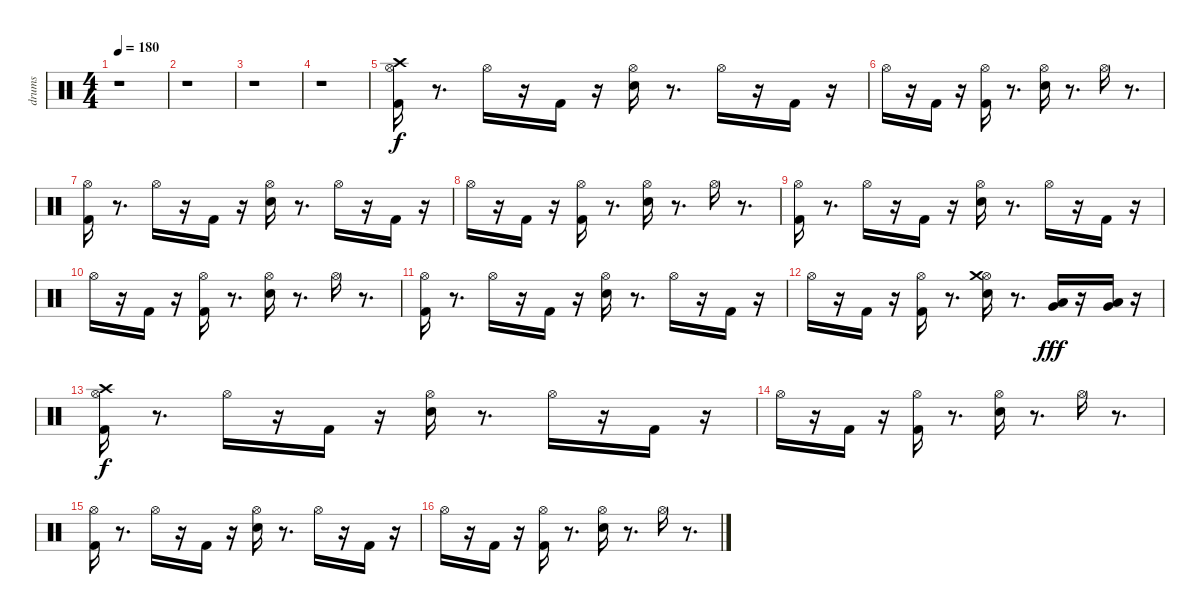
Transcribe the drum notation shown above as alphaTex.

\track ("drums" "drums") {instrument percussion}
\staff {score}
\articulation defaults
\ts (4 4)
\tempo 180
\clef neutral
\ks c
r.1{dy f} |
r.1 |
r.1 |
r.1 |
("Kick (hit) 2" "Hi-Hat (open)" "Crash high (hit)").16 r.8{d} "Hi-Hat (open)".16 r.16 "Kick (hit) 2".16 r.16 ("Electric Snare (hit)" "Hi-Hat (open)").16 r.8{d} "Hi-Hat (open)".16 r.16 "Kick (hit) 2".16 r.16 |
"Hi-Hat (open)".16 r.16 "Kick (hit) 2".16 r.16 ("Hi-Hat (open)" "Kick (hit) 2").16 r.8{d} ("Hi-Hat (open)" "Electric Snare (hit)").16 r.8{d} "Hi-Hat (open)".16 r.8{d} |
("Kick (hit) 2" "Hi-Hat (open)").16 r.8{d} "Hi-Hat (open)".16 r.16 "Kick (hit) 2".16 r.16 ("Electric Snare (hit)" "Hi-Hat (open)").16 r.8{d} "Hi-Hat (open)".16 r.16 "Kick (hit) 2".16 r.16 |
"Hi-Hat (open)".16 r.16 "Kick (hit) 2".16 r.16 ("Hi-Hat (open)" "Kick (hit) 2").16 r.8{d} ("Hi-Hat (open)" "Electric Snare (hit)").16 r.8{d} "Hi-Hat (open)".16 r.8{d} |
("Kick (hit) 2" "Hi-Hat (open)").16 r.8{d} "Hi-Hat (open)".16 r.16 "Kick (hit) 2".16 r.16 ("Electric Snare (hit)" "Hi-Hat (open)").16 r.8{d} "Hi-Hat (open)".16 r.16 "Kick (hit) 2".16 r.16 |
"Hi-Hat (open)".16 r.16 "Kick (hit) 2".16 r.16 ("Hi-Hat (open)" "Kick (hit) 2").16 r.8{d} ("Hi-Hat (open)" "Electric Snare (hit)").16 r.8{d} "Hi-Hat (open)".16 r.8{d} |
("Kick (hit) 2" "Hi-Hat (open)").16 r.8{d} "Hi-Hat (open)".16 r.16 "Kick (hit) 2".16 r.16 ("Electric Snare (hit)" "Hi-Hat (open)").16 r.8{d} "Hi-Hat (open)".16 r.16 "Kick (hit) 2".16 r.16 |
"Hi-Hat (open)".16 r.16 "Kick (hit) 2".16 r.16 ("Hi-Hat (open)" "Kick (hit) 2").16 r.8{d} ("Hi-Hat (open)" "Electric Snare (hit)" "Crash medium (hit)").16 r.8{d} ("Low Tom (hit)" "Very Low Tom (hit)").16{dy fff} r.16 ("Very Low Tom (hit)" "Low Floor Tom (hit)").16 r.16 |
("Crash high (hit)" "Kick (hit) 2" "Hi-Hat (open)").16{dy f} r.8{d} "Hi-Hat (open)".16 r.16 "Kick (hit) 2".16 r.16 ("Electric Snare (hit)" "Hi-Hat (open)").16 r.8{d} "Hi-Hat (open)".16 r.16 "Kick (hit) 2".16 r.16 |
"Hi-Hat (open)".16 r.16 "Kick (hit) 2".16 r.16 ("Hi-Hat (open)" "Kick (hit) 2").16 r.8{d} ("Hi-Hat (open)" "Electric Snare (hit)").16 r.8{d} "Hi-Hat (open)".16 r.8{d} |
("Kick (hit) 2" "Hi-Hat (open)").16 r.8{d} "Hi-Hat (open)".16 r.16 "Kick (hit) 2".16 r.16 ("Electric Snare (hit)" "Hi-Hat (open)").16 r.8{d} "Hi-Hat (open)".16 r.16 "Kick (hit) 2".16 r.16 |
"Hi-Hat (open)".16 r.16 "Kick (hit) 2".16 r.16 ("Hi-Hat (open)" "Kick (hit) 2").16 r.8{d} ("Hi-Hat (open)" "Electric Snare (hit)").16 r.8{d} "Hi-Hat (open)".16 r.8{d}
